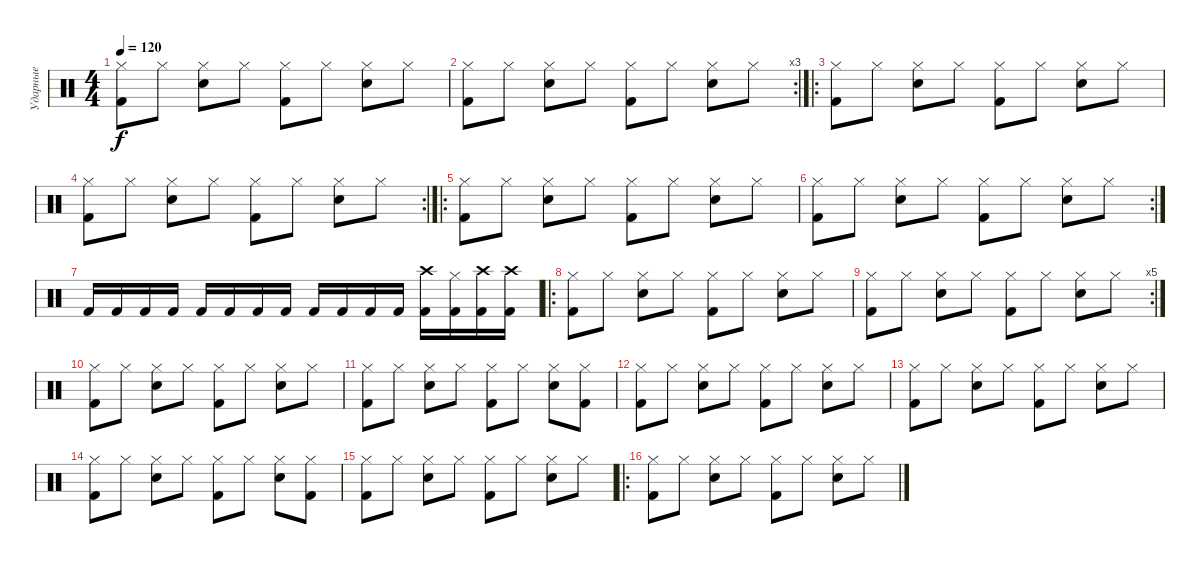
\track ("Ударные" "Ударные") {instrument percussion}
\staff {score}
\articulation defaults
\ts (4 4)
\tempo 120
\clef neutral
\ks c
("Hi-Hat (closed)" "Kick (hit) 2").8{dy f} "Hi-Hat (closed)".8 ("Hi-Hat (closed)" "Electric Snare (hit)").8 "Hi-Hat (closed)".8 ("Hi-Hat (closed)" "Kick (hit) 2").8 "Hi-Hat (closed)".8 ("Hi-Hat (closed)" "Electric Snare (hit)").8 "Hi-Hat (closed)".8 |
\rc 3
("Hi-Hat (closed)" "Kick (hit) 2").8 "Hi-Hat (closed)".8 ("Hi-Hat (closed)" "Electric Snare (hit)").8 "Hi-Hat (closed)".8 ("Hi-Hat (closed)" "Kick (hit) 2").8 "Hi-Hat (closed)".8 ("Hi-Hat (closed)" "Electric Snare (hit)").8 "Hi-Hat (closed)".8 |
\ro
("Hi-Hat (closed)" "Kick (hit) 2").8 "Hi-Hat (closed)".8 ("Hi-Hat (closed)" "Electric Snare (hit)").8 "Hi-Hat (closed)".8 ("Hi-Hat (closed)" "Kick (hit) 2").8 "Hi-Hat (closed)".8 ("Hi-Hat (closed)" "Electric Snare (hit)").8 "Hi-Hat (closed)".8 |
\rc 2
("Hi-Hat (closed)" "Kick (hit) 2").8 "Hi-Hat (closed)".8 ("Hi-Hat (closed)" "Electric Snare (hit)").8 "Hi-Hat (closed)".8 ("Hi-Hat (closed)" "Kick (hit) 2").8 "Hi-Hat (closed)".8 ("Hi-Hat (closed)" "Electric Snare (hit)").8 "Hi-Hat (closed)".8 |
\ro
("Hi-Hat (closed)" "Kick (hit) 2").8 "Hi-Hat (closed)".8 ("Hi-Hat (closed)" "Electric Snare (hit)").8 "Hi-Hat (closed)".8 ("Hi-Hat (closed)" "Kick (hit) 2").8 "Hi-Hat (closed)".8 ("Hi-Hat (closed)" "Electric Snare (hit)").8 "Hi-Hat (closed)".8 |
\rc 2
("Hi-Hat (closed)" "Kick (hit) 2").8 "Hi-Hat (closed)".8 ("Hi-Hat (closed)" "Electric Snare (hit)").8 "Hi-Hat (closed)".8 ("Hi-Hat (closed)" "Kick (hit) 2").8 "Hi-Hat (closed)".8 ("Hi-Hat (closed)" "Electric Snare (hit)").8 "Hi-Hat (closed)".8 |
"Kick (hit) 2".16 "Kick (hit) 2".16 "Kick (hit) 2".16 "Kick (hit) 2".16 "Kick (hit) 2".16 "Kick (hit) 2".16 "Kick (hit) 2".16 "Kick (hit) 2".16 "Kick (hit) 2".16 "Kick (hit) 2".16 "Kick (hit) 2".16 "Kick (hit) 2".16 ("Kick (hit) 2" "Crash high (hit)").16 ("Kick (hit) 2" "Hi-Hat (closed)").16 ("Kick (hit) 2" "Crash high (hit)").16 ("Kick (hit) 2" "Crash high (hit)").16 |
\ro
("Hi-Hat (closed)" "Kick (hit) 2").8 "Hi-Hat (closed)".8 ("Hi-Hat (closed)" "Electric Snare (hit)").8 "Hi-Hat (closed)".8 ("Hi-Hat (closed)" "Kick (hit) 2").8 "Hi-Hat (closed)".8 ("Hi-Hat (closed)" "Electric Snare (hit)").8 "Hi-Hat (closed)".8 |
\rc 5
("Hi-Hat (closed)" "Kick (hit) 2").8 "Hi-Hat (closed)".8 ("Hi-Hat (closed)" "Electric Snare (hit)").8 "Hi-Hat (closed)".8 ("Hi-Hat (closed)" "Kick (hit) 2").8 "Hi-Hat (closed)".8 ("Hi-Hat (closed)" "Electric Snare (hit)").8 "Hi-Hat (closed)".8 |
("Hi-Hat (closed)" "Kick (hit) 2").8 "Hi-Hat (closed)".8 ("Hi-Hat (closed)" "Snare (hit) 2").8 "Hi-Hat (closed)".8 ("Hi-Hat (closed)" "Kick (hit) 2").8 "Hi-Hat (closed)".8 ("Hi-Hat (closed)" "Snare (hit) 2").8 "Hi-Hat (closed)".8 |
("Hi-Hat (closed)" "Kick (hit) 2").8 "Hi-Hat (closed)".8 ("Hi-Hat (closed)" "Snare (hit) 2").8 "Hi-Hat (closed)".8 ("Hi-Hat (closed)" "Kick (hit) 2").8 "Hi-Hat (closed)".8 ("Hi-Hat (closed)" "Snare (hit) 2").8 ("Hi-Hat (closed)" "Kick (hit) 2").8 |
("Hi-Hat (closed)" "Kick (hit) 2").8 "Hi-Hat (closed)".8 ("Hi-Hat (closed)" "Snare (hit) 2").8 "Hi-Hat (closed)".8 ("Hi-Hat (closed)" "Kick (hit) 2").8 "Hi-Hat (closed)".8 ("Hi-Hat (closed)" "Snare (hit) 2").8 "Hi-Hat (closed)".8 |
("Hi-Hat (closed)" "Kick (hit) 2").8 "Hi-Hat (closed)".8 ("Hi-Hat (closed)" "Snare (hit) 2").8 "Hi-Hat (closed)".8 ("Hi-Hat (closed)" "Kick (hit) 2").8 "Hi-Hat (closed)".8 ("Hi-Hat (closed)" "Snare (hit) 2").8 "Hi-Hat (closed)".8 |
("Hi-Hat (closed)" "Kick (hit) 2").8 "Hi-Hat (closed)".8 ("Hi-Hat (closed)" "Snare (hit) 2").8 "Hi-Hat (closed)".8 ("Hi-Hat (closed)" "Kick (hit) 2").8 "Hi-Hat (closed)".8 ("Hi-Hat (closed)" "Snare (hit) 2").8 ("Hi-Hat (closed)" "Kick (hit) 2").8 |
("Hi-Hat (closed)" "Kick (hit) 2").8 "Hi-Hat (closed)".8 ("Hi-Hat (closed)" "Snare (hit) 2").8 "Hi-Hat (closed)".8 ("Hi-Hat (closed)" "Kick (hit) 2").8 "Hi-Hat (closed)".8 ("Hi-Hat (closed)" "Snare (hit) 2").8 "Hi-Hat (closed)".8 |
\ro
("Hi-Hat (closed)" "Kick (hit) 2").8 "Hi-Hat (closed)".8 ("Hi-Hat (closed)" "Snare (hit) 2").8 "Hi-Hat (closed)".8 ("Hi-Hat (closed)" "Kick (hit) 2").8 "Hi-Hat (closed)".8 ("Hi-Hat (closed)" "Snare (hit) 2").8 "Hi-Hat (closed)".8
